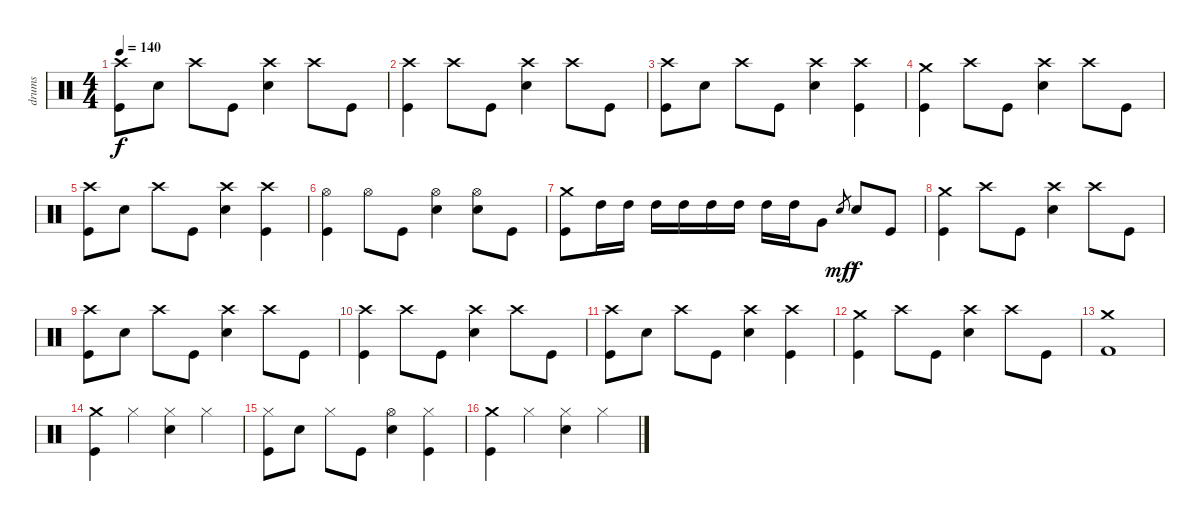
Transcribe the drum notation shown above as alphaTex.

\track ("drums" "drums") {instrument percussion}
\staff {score}
\articulation defaults
\ts (4 4)
\tempo 140
\clef neutral
\ks c
("Crash high (hit)" "Kick (hit)").8{dy f} "Snare (hit) 2".8 "Crash high (hit)".8 "Kick (hit)".8 ("Crash high (hit)" "Snare (hit) 2").4 "Crash high (hit)".8 "Kick (hit)".8 |
("Crash high (hit)" "Kick (hit)").4 "Crash high (hit)".8 "Kick (hit)".8 ("Crash high (hit)" "Snare (hit) 2").4 "Crash high (hit)".8 "Kick (hit)".8 |
("Crash high (hit)" "Kick (hit)").8 "Snare (hit) 2".8 "Crash high (hit)".8 "Kick (hit)".8 ("Crash high (hit)" "Snare (hit) 2").4 ("Crash high (hit)" "Kick (hit)").4 |
("Crash medium (hit)" "Kick (hit)").4 "Crash high (hit)".8 "Kick (hit)".8 ("Crash high (hit)" "Snare (hit) 2").4 "Crash high (hit)".8 "Kick (hit)".8 |
("Crash high (hit)" "Kick (hit)").8 "Snare (hit) 2".8 "Crash high (hit)".8 "Kick (hit)".8 ("Crash high (hit)" "Snare (hit) 2").4 ("Crash high (hit)" "Kick (hit)").4 |
("Hi-Hat (open)" "Kick (hit)").4 "Hi-Hat (open)".8 "Kick (hit)".8 ("Hi-Hat (open)" "Snare (hit) 2").4 ("Hi-Hat (open)" "Snare (hit) 2").8 "Kick (hit)".8 |
("Crash medium (hit)" "Kick (hit)").8 "High Tom (hit)".16 "High Tom (hit)".16 "High Tom (hit)".16 "High Tom (hit)".16 "High Tom (hit)".16 "High Tom (hit)".16 "High Tom (hit)".16 "High Tom (hit)".16 "Very Low Tom (hit)".8 "Snare (hit)".8{gr dy mf} "Snare (hit) 2".8{dy f} "Kick (hit)".8 |
("Crash medium (hit)" "Kick (hit)").4 "Crash high (hit)".8 "Kick (hit)".8 ("Crash high (hit)" "Snare (hit) 2").4 "Crash high (hit)".8 "Kick (hit)".8 |
("Crash high (hit)" "Kick (hit)").8 "Snare (hit) 2".8 "Crash high (hit)".8 "Kick (hit)".8 ("Crash high (hit)" "Snare (hit) 2").4 "Crash high (hit)".8 "Kick (hit)".8 |
("Crash high (hit)" "Kick (hit)").4 "Crash high (hit)".8 "Kick (hit)".8 ("Crash high (hit)" "Snare (hit) 2").4 "Crash high (hit)".8 "Kick (hit)".8 |
("Crash high (hit)" "Kick (hit)").8 "Snare (hit) 2".8 "Crash high (hit)".8 "Kick (hit)".8 ("Crash high (hit)" "Snare (hit) 2").4 ("Crash high (hit)" "Kick (hit)").4 |
("Crash medium (hit)" "Kick (hit)").4 "Crash high (hit)".8 "Kick (hit)".8 ("Crash high (hit)" "Snare (hit) 2").4 "Crash high (hit)".8 "Kick (hit)".8 |
("Crash medium (hit)" "Kick (hit) 2").1 |
("Kick (hit)" "Crash medium (hit)").4 "Hi-Hat (closed)".4 ("Snare (hit) 2" "Hi-Hat (closed)").4 "Hi-Hat (closed)".4 |
("Kick (hit)" "Hi-Hat (closed)").8 "Snare (hit) 2".8 "Hi-Hat (closed)".8 "Kick (hit)".8 ("Snare (hit) 2" "Hi-Hat (open)").4 ("Kick (hit)" "Hi-Hat (closed)").4 |
("Kick (hit)" "Crash medium (hit)").4 "Hi-Hat (closed)".4 ("Snare (hit) 2" "Hi-Hat (closed)").4 "Hi-Hat (closed)".4
